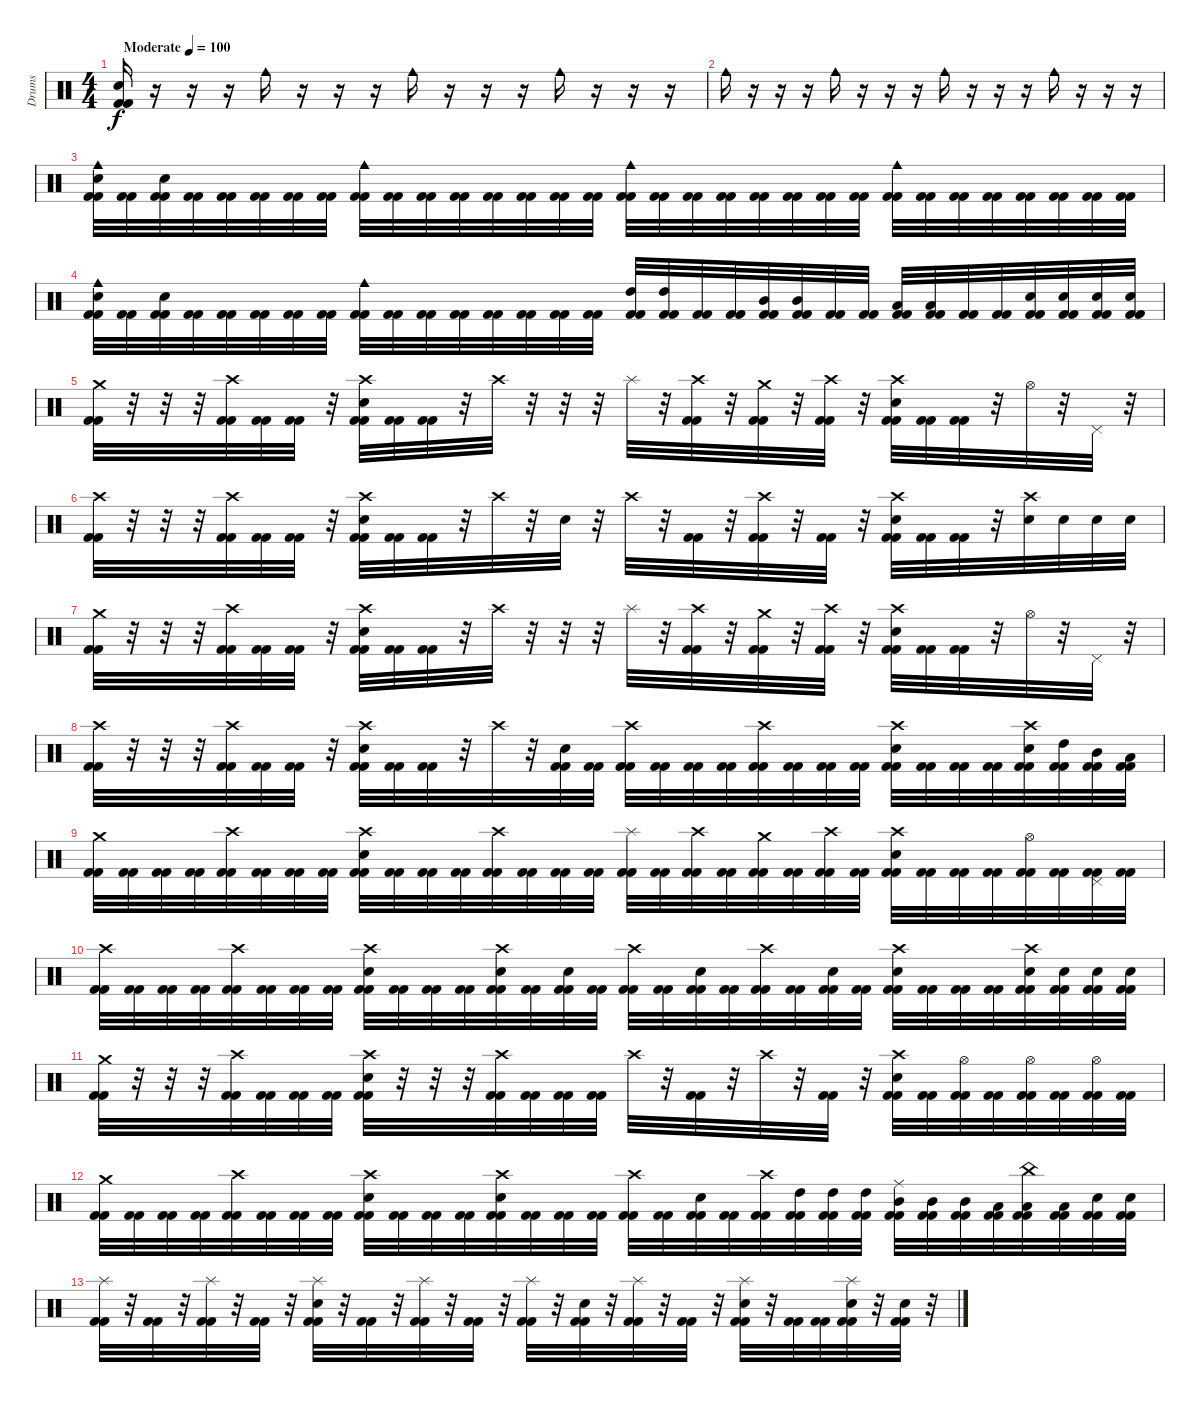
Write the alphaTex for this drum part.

\track ("Drums" "Drums") {instrument percussion}
\staff {score}
\articulation defaults
\ts (4 4)
\tempo (100 "Moderate")
\clef neutral
\ks c
("Electric Snare (hit)" "Kick (hit) 2" "Kick (hit) 2").16{dy f} r.16 r.16 r.16 "Cowbell medium (hit)".16 r.16 r.16 r.16 "Cowbell medium (hit)".16 r.16 r.16 r.16 "Cowbell medium (hit)".16 r.16 r.16 r.16 |
"Cowbell medium (hit)".16 r.16 r.16 r.16 "Cowbell medium (hit)".16 r.16 r.16 r.16 "Cowbell medium (hit)".16 r.16 r.16 r.16 "Cowbell medium (hit)".16 r.16 r.16 r.16 |
("Cowbell medium (hit)" "Electric Snare (hit)" "Kick (hit) 2" "Kick (hit) 2").32 ("Kick (hit) 2" "Kick (hit) 2").32 ("Electric Snare (hit)" "Kick (hit) 2" "Kick (hit) 2").32 ("Kick (hit) 2" "Kick (hit) 2").32 ("Kick (hit) 2" "Kick (hit) 2").32 ("Kick (hit) 2" "Kick (hit) 2").32 ("Kick (hit) 2" "Kick (hit) 2").32 ("Kick (hit) 2" "Kick (hit) 2").32 ("Cowbell medium (hit)" "Kick (hit) 2" "Kick (hit) 2").32 ("Kick (hit) 2" "Kick (hit) 2").32 ("Kick (hit) 2" "Kick (hit) 2").32 ("Kick (hit) 2" "Kick (hit) 2").32 ("Kick (hit) 2" "Kick (hit) 2").32 ("Kick (hit) 2" "Kick (hit) 2").32 ("Kick (hit) 2" "Kick (hit) 2").32 ("Kick (hit) 2" "Kick (hit) 2").32 ("Cowbell medium (hit)" "Kick (hit) 2" "Kick (hit) 2").32 ("Kick (hit) 2" "Kick (hit) 2").32 ("Kick (hit) 2" "Kick (hit) 2").32 ("Kick (hit) 2" "Kick (hit) 2").32 ("Kick (hit) 2" "Kick (hit) 2").32 ("Kick (hit) 2" "Kick (hit) 2").32 ("Kick (hit) 2" "Kick (hit) 2").32 ("Kick (hit) 2" "Kick (hit) 2").32 ("Cowbell medium (hit)" "Kick (hit) 2" "Kick (hit) 2").32 ("Kick (hit) 2" "Kick (hit) 2").32 ("Kick (hit) 2" "Kick (hit) 2").32 ("Kick (hit) 2" "Kick (hit) 2").32 ("Kick (hit) 2" "Kick (hit) 2").32 ("Kick (hit) 2" "Kick (hit) 2").32 ("Kick (hit) 2" "Kick (hit) 2").32 ("Kick (hit) 2" "Kick (hit) 2").32 |
("Cowbell medium (hit)" "Electric Snare (hit)" "Kick (hit) 2" "Kick (hit) 2").32 ("Kick (hit) 2" "Kick (hit) 2").32 ("Electric Snare (hit)" "Kick (hit) 2" "Kick (hit) 2").32 ("Kick (hit) 2" "Kick (hit) 2").32 ("Kick (hit) 2" "Kick (hit) 2").32 ("Kick (hit) 2" "Kick (hit) 2").32 ("Kick (hit) 2" "Kick (hit) 2").32 ("Kick (hit) 2" "Kick (hit) 2").32 ("Cowbell medium (hit)" "Kick (hit) 2" "Kick (hit) 2").32 ("Kick (hit) 2" "Kick (hit) 2").32 ("Kick (hit) 2" "Kick (hit) 2").32 ("Kick (hit) 2" "Kick (hit) 2").32 ("Kick (hit) 2" "Kick (hit) 2").32 ("Kick (hit) 2" "Kick (hit) 2").32 ("Kick (hit) 2" "Kick (hit) 2").32 ("Kick (hit) 2" "Kick (hit) 2").32 ("High Tom (hit)" "Kick (hit) 2" "Kick (hit) 2").32 ("High Tom (hit)" "Kick (hit) 2" "Kick (hit) 2").32 ("Kick (hit) 2" "Kick (hit) 2").32 ("Kick (hit) 2" "Kick (hit) 2").32 ("Mid Tom (hit)" "Kick (hit) 2" "Kick (hit) 2").32 ("Mid Tom (hit)" "Kick (hit) 2" "Kick (hit) 2").32 ("Kick (hit) 2" "Kick (hit) 2").32 ("Kick (hit) 2" "Kick (hit) 2").32 ("Low Tom (hit)" "Kick (hit) 2" "Kick (hit) 2").32 ("Low Tom (hit)" "Kick (hit) 2" "Kick (hit) 2").32 ("Kick (hit) 2" "Kick (hit) 2").32 ("Kick (hit) 2" "Kick (hit) 2").32 ("Electric Snare (hit)" "Kick (hit) 2" "Kick (hit) 2").32 ("Electric Snare (hit)" "Kick (hit) 2" "Kick (hit) 2").32 ("Electric Snare (hit)" "Kick (hit) 2" "Kick (hit) 2").32 ("Electric Snare (hit)" "Kick (hit) 2" "Kick (hit) 2").32 |
("Crash medium (hit)" "Kick (hit) 2" "Kick (hit) 2").32 r.32 r.32 r.32 ("Crash high (hit)" "Kick (hit) 2" "Kick (hit) 2").32 ("Kick (hit) 2" "Kick (hit) 2").32 ("Kick (hit) 2" "Kick (hit) 2").32 r.32 ("Crash high (hit)" "Electric Snare (hit)" "Kick (hit) 2" "Kick (hit) 2").32 ("Kick (hit) 2" "Kick (hit) 2").32 ("Kick (hit) 2" "Kick (hit) 2").32 r.32 "Crash high (hit)".32 r.32 r.32 r.32 "Splash (hit)".32 r.32 ("Crash high (hit)" "Kick (hit) 2" "Kick (hit) 2").32 r.32 ("Crash medium (hit)" "Kick (hit) 2" "Kick (hit) 2").32 r.32 ("Crash high (hit)" "Kick (hit) 2" "Kick (hit) 2").32 r.32 ("Crash high (hit)" "Electric Snare (hit)" "Kick (hit) 2" "Kick (hit) 2").32 ("Kick (hit) 2" "Kick (hit) 2").32 ("Kick (hit) 2" "Kick (hit) 2").32 r.32 "Hi-Hat (open)".32 r.32 "Pedal Hi-Hat (hit)".32 r.32 |
("Crash high (hit)" "Kick (hit) 2" "Kick (hit) 2").32 r.32 r.32 r.32 ("Crash high (hit)" "Kick (hit) 2" "Kick (hit) 2").32 ("Kick (hit) 2" "Kick (hit) 2").32 ("Kick (hit) 2" "Kick (hit) 2").32 r.32 ("Crash high (hit)" "Electric Snare (hit)" "Kick (hit) 2" "Kick (hit) 2").32 ("Kick (hit) 2" "Kick (hit) 2").32 ("Kick (hit) 2" "Kick (hit) 2").32 r.32 "Crash high (hit)".32 r.32 "Electric Snare (hit)".32 r.32 "Crash high (hit)".32 r.32 ("Kick (hit) 2" "Kick (hit) 2").32 r.32 ("Crash high (hit)" "Kick (hit) 2" "Kick (hit) 2").32 r.32 ("Kick (hit) 2" "Kick (hit) 2").32 r.32 ("Crash high (hit)" "Electric Snare (hit)" "Kick (hit) 2" "Kick (hit) 2").32 ("Kick (hit) 2" "Kick (hit) 2").32 ("Kick (hit) 2" "Kick (hit) 2").32 r.32 ("Crash high (hit)" "Electric Snare (hit)").32 "Electric Snare (hit)".32 "Electric Snare (hit)".32 "Electric Snare (hit)".32 |
("Crash medium (hit)" "Kick (hit) 2" "Kick (hit) 2").32 r.32 r.32 r.32 ("Crash high (hit)" "Kick (hit) 2" "Kick (hit) 2").32 ("Kick (hit) 2" "Kick (hit) 2").32 ("Kick (hit) 2" "Kick (hit) 2").32 r.32 ("Crash high (hit)" "Electric Snare (hit)" "Kick (hit) 2" "Kick (hit) 2").32 ("Kick (hit) 2" "Kick (hit) 2").32 ("Kick (hit) 2" "Kick (hit) 2").32 r.32 "Crash high (hit)".32 r.32 r.32 r.32 "Splash (hit)".32 r.32 ("Crash high (hit)" "Kick (hit) 2" "Kick (hit) 2").32 r.32 ("Crash medium (hit)" "Kick (hit) 2" "Kick (hit) 2").32 r.32 ("Crash high (hit)" "Kick (hit) 2" "Kick (hit) 2").32 r.32 ("Crash high (hit)" "Electric Snare (hit)" "Kick (hit) 2" "Kick (hit) 2").32 ("Kick (hit) 2" "Kick (hit) 2").32 ("Kick (hit) 2" "Kick (hit) 2").32 r.32 "Hi-Hat (open)".32 r.32 "Pedal Hi-Hat (hit)".32 r.32 |
("Crash high (hit)" "Kick (hit) 2" "Kick (hit) 2").32 r.32 r.32 r.32 ("Crash high (hit)" "Kick (hit) 2" "Kick (hit) 2").32 ("Kick (hit) 2" "Kick (hit) 2").32 ("Kick (hit) 2" "Kick (hit) 2").32 r.32 ("Crash high (hit)" "Electric Snare (hit)" "Kick (hit) 2" "Kick (hit) 2").32 ("Kick (hit) 2" "Kick (hit) 2").32 ("Kick (hit) 2" "Kick (hit) 2").32 r.32 "Crash high (hit)".32 r.32 ("Electric Snare (hit)" "Kick (hit) 2" "Kick (hit) 2").32 ("Kick (hit) 2" "Kick (hit) 2").32 ("Crash high (hit)" "Kick (hit) 2" "Kick (hit) 2").32 ("Kick (hit) 2" "Kick (hit) 2").32 ("Kick (hit) 2" "Kick (hit) 2").32 ("Kick (hit) 2" "Kick (hit) 2").32 ("Crash high (hit)" "Kick (hit) 2" "Kick (hit) 2").32 ("Kick (hit) 2" "Kick (hit) 2").32 ("Kick (hit) 2" "Kick (hit) 2").32 ("Kick (hit) 2" "Kick (hit) 2").32 ("Crash high (hit)" "Electric Snare (hit)" "Kick (hit) 2" "Kick (hit) 2").32 ("Kick (hit) 2" "Kick (hit) 2").32 ("Kick (hit) 2" "Kick (hit) 2").32 ("Kick (hit) 2" "Kick (hit) 2").32 ("Crash high (hit)" "Electric Snare (hit)" "Kick (hit) 2" "Kick (hit) 2").32 ("High Tom (hit)" "Kick (hit) 2" "Kick (hit) 2").32 ("Mid Tom (hit)" "Kick (hit) 2" "Kick (hit) 2").32 ("Low Tom (hit)" "Kick (hit) 2" "Kick (hit) 2").32 |
("Crash medium (hit)" "Kick (hit) 2" "Kick (hit) 2").32 ("Kick (hit) 2" "Kick (hit) 2").32 ("Kick (hit) 2" "Kick (hit) 2").32 ("Kick (hit) 2" "Kick (hit) 2").32 ("Crash high (hit)" "Kick (hit) 2" "Kick (hit) 2").32 ("Kick (hit) 2" "Kick (hit) 2").32 ("Kick (hit) 2" "Kick (hit) 2").32 ("Kick (hit) 2" "Kick (hit) 2").32 ("Crash high (hit)" "Electric Snare (hit)" "Kick (hit) 2" "Kick (hit) 2").32 ("Kick (hit) 2" "Kick (hit) 2").32 ("Kick (hit) 2" "Kick (hit) 2").32 ("Kick (hit) 2" "Kick (hit) 2").32 ("Crash high (hit)" "Kick (hit) 2" "Kick (hit) 2").32 ("Kick (hit) 2" "Kick (hit) 2").32 ("Kick (hit) 2" "Kick (hit) 2").32 ("Kick (hit) 2" "Kick (hit) 2").32 ("Splash (hit)" "Kick (hit) 2" "Kick (hit) 2").32 ("Kick (hit) 2" "Kick (hit) 2").32 ("Crash high (hit)" "Kick (hit) 2" "Kick (hit) 2").32 ("Kick (hit) 2" "Kick (hit) 2").32 ("Crash medium (hit)" "Kick (hit) 2" "Kick (hit) 2").32 ("Kick (hit) 2" "Kick (hit) 2").32 ("Crash high (hit)" "Kick (hit) 2" "Kick (hit) 2").32 ("Kick (hit) 2" "Kick (hit) 2").32 ("Crash high (hit)" "Electric Snare (hit)" "Kick (hit) 2" "Kick (hit) 2").32 ("Kick (hit) 2" "Kick (hit) 2").32 ("Kick (hit) 2" "Kick (hit) 2").32 ("Kick (hit) 2" "Kick (hit) 2").32 ("Hi-Hat (open)" "Kick (hit) 2" "Kick (hit) 2").32 ("Kick (hit) 2" "Kick (hit) 2").32 ("Pedal Hi-Hat (hit)" "Kick (hit) 2" "Kick (hit) 2").32 ("Kick (hit) 2" "Kick (hit) 2").32 |
("Crash high (hit)" "Kick (hit) 2" "Kick (hit) 2").32 ("Kick (hit) 2" "Kick (hit) 2").32 ("Kick (hit) 2" "Kick (hit) 2").32 ("Kick (hit) 2" "Kick (hit) 2").32 ("Crash high (hit)" "Kick (hit) 2" "Kick (hit) 2").32 ("Kick (hit) 2" "Kick (hit) 2").32 ("Kick (hit) 2" "Kick (hit) 2").32 ("Kick (hit) 2" "Kick (hit) 2").32 ("Crash high (hit)" "Electric Snare (hit)" "Kick (hit) 2" "Kick (hit) 2").32 ("Kick (hit) 2" "Kick (hit) 2").32 ("Kick (hit) 2" "Kick (hit) 2").32 ("Kick (hit) 2" "Kick (hit) 2").32 ("Crash high (hit)" "Electric Snare (hit)" "Kick (hit) 2" "Kick (hit) 2").32 ("Kick (hit) 2" "Kick (hit) 2").32 ("Electric Snare (hit)" "Kick (hit) 2" "Kick (hit) 2").32 ("Kick (hit) 2" "Kick (hit) 2").32 ("Crash high (hit)" "Kick (hit) 2" "Kick (hit) 2").32 ("Kick (hit) 2" "Kick (hit) 2").32 ("Electric Snare (hit)" "Kick (hit) 2" "Kick (hit) 2").32 ("Kick (hit) 2" "Kick (hit) 2").32 ("Crash high (hit)" "Kick (hit) 2" "Kick (hit) 2").32 ("Kick (hit) 2" "Kick (hit) 2").32 ("Electric Snare (hit)" "Kick (hit) 2" "Kick (hit) 2").32 ("Kick (hit) 2" "Kick (hit) 2").32 ("Crash high (hit)" "Electric Snare (hit)" "Kick (hit) 2" "Kick (hit) 2").32 ("Kick (hit) 2" "Kick (hit) 2").32 ("Kick (hit) 2" "Kick (hit) 2").32 ("Kick (hit) 2" "Kick (hit) 2").32 ("Crash high (hit)" "Electric Snare (hit)" "Kick (hit) 2" "Kick (hit) 2").32 ("Electric Snare (hit)" "Kick (hit) 2" "Kick (hit) 2").32 ("Electric Snare (hit)" "Kick (hit) 2" "Kick (hit) 2").32 ("Electric Snare (hit)" "Kick (hit) 2" "Kick (hit) 2").32 |
("Crash medium (hit)" "Kick (hit) 2" "Kick (hit) 2").32 r.32 r.32 r.32 ("Crash high (hit)" "Kick (hit) 2" "Kick (hit) 2").32 ("Kick (hit) 2" "Kick (hit) 2").32 ("Kick (hit) 2" "Kick (hit) 2").32 ("Kick (hit) 2" "Kick (hit) 2").32 ("Crash high (hit)" "Electric Snare (hit)" "Kick (hit) 2" "Kick (hit) 2").32 r.32 r.32 r.32 ("Crash high (hit)" "Kick (hit) 2" "Kick (hit) 2").32 ("Kick (hit) 2" "Kick (hit) 2").32 ("Kick (hit) 2" "Kick (hit) 2").32 ("Kick (hit) 2" "Kick (hit) 2").32 "Crash high (hit)".32 r.32 ("Kick (hit) 2" "Kick (hit) 2").32 r.32 "Crash high (hit)".32 r.32 ("Kick (hit) 2" "Kick (hit) 2").32 r.32 ("Crash high (hit)" "Electric Snare (hit)" "Kick (hit) 2" "Kick (hit) 2").32 ("Kick (hit) 2" "Kick (hit) 2").32 ("Hi-Hat (open)" "Kick (hit) 2" "Kick (hit) 2").32 ("Kick (hit) 2" "Kick (hit) 2").32 ("Hi-Hat (open)" "Kick (hit) 2" "Kick (hit) 2").32 ("Kick (hit) 2" "Kick (hit) 2").32 ("Hi-Hat (open)" "Kick (hit) 2" "Kick (hit) 2").32 ("Kick (hit) 2" "Kick (hit) 2").32 |
("Crash medium (hit)" "Kick (hit) 2" "Kick (hit) 2").32 ("Kick (hit) 2" "Kick (hit) 2").32 ("Kick (hit) 2" "Kick (hit) 2").32 ("Kick (hit) 2" "Kick (hit) 2").32 ("Crash high (hit)" "Kick (hit) 2" "Kick (hit) 2").32 ("Kick (hit) 2" "Kick (hit) 2").32 ("Kick (hit) 2" "Kick (hit) 2").32 ("Kick (hit) 2" "Kick (hit) 2").32 ("Crash high (hit)" "Electric Snare (hit)" "Kick (hit) 2" "Kick (hit) 2").32 ("Kick (hit) 2" "Kick (hit) 2").32 ("Kick (hit) 2" "Kick (hit) 2").32 ("Kick (hit) 2" "Kick (hit) 2").32 ("Crash high (hit)" "Electric Snare (hit)" "Kick (hit) 2" "Kick (hit) 2").32 ("Kick (hit) 2" "Kick (hit) 2").32 ("Kick (hit) 2" "Kick (hit) 2").32 ("Kick (hit) 2" "Kick (hit) 2").32 ("Crash high (hit)" "Kick (hit) 2" "Kick (hit) 2").32 ("Kick (hit) 2" "Kick (hit) 2").32 ("Electric Snare (hit)" "Kick (hit) 2" "Kick (hit) 2").32 ("Kick (hit) 2" "Kick (hit) 2").32 ("Crash high (hit)" "Kick (hit) 2" "Kick (hit) 2").32 ("High Tom (hit)" "Kick (hit) 2" "Kick (hit) 2").32 ("High Tom (hit)" "Kick (hit) 2" "Kick (hit) 2").32 ("High Tom (hit)" "Kick (hit) 2" "Kick (hit) 2").32 ("Ride (middle)" "Mid Tom (hit)" "Kick (hit) 2" "Kick (hit) 2").32 ("Mid Tom (hit)" "Kick (hit) 2" "Kick (hit) 2").32 ("Mid Tom (hit)" "Kick (hit) 2" "Kick (hit) 2").32 ("Low Tom (hit)" "Kick (hit) 2" "Kick (hit) 2").32 ("China (hit)" "Low Tom (hit)" "Kick (hit) 2" "Kick (hit) 2").32 ("Low Tom (hit)" "Kick (hit) 2" "Kick (hit) 2").32 ("Electric Snare (hit)" "Kick (hit) 2" "Kick (hit) 2").32 ("Electric Snare (hit)" "Kick (hit) 2" "Kick (hit) 2").32 |
("Splash (hit)" "Kick (hit) 2" "Kick (hit) 2").32 r.32 ("Kick (hit) 2" "Kick (hit) 2").32 r.32 ("Splash (hit)" "Kick (hit) 2" "Kick (hit) 2").32 r.32 ("Kick (hit) 2" "Kick (hit) 2").32 r.32 ("Splash (hit)" "Electric Snare (hit)" "Kick (hit) 2" "Kick (hit) 2").32 r.32 ("Kick (hit) 2" "Kick (hit) 2").32 r.32 ("Splash (hit)" "Kick (hit) 2" "Kick (hit) 2").32 r.32 ("Kick (hit) 2" "Kick (hit) 2").32 r.32 ("Splash (hit)" "Kick (hit) 2" "Kick (hit) 2").32 r.32 ("Electric Snare (hit)" "Kick (hit) 2" "Kick (hit) 2").32 r.32 ("Splash (hit)" "Kick (hit) 2" "Kick (hit) 2").32 r.32 ("Kick (hit) 2" "Kick (hit) 2").32 r.32 ("Splash (hit)" "Electric Snare (hit)" "Kick (hit) 2" "Kick (hit) 2").32 r.32 ("Kick (hit) 2" "Kick (hit) 2").32 ("Kick (hit) 2" "Kick (hit) 2").32 ("Splash (hit)" "Electric Snare (hit)" "Kick (hit) 2" "Kick (hit) 2").32 r.32 ("Electric Snare (hit)" "Kick (hit) 2" "Kick (hit) 2").32 r.32
